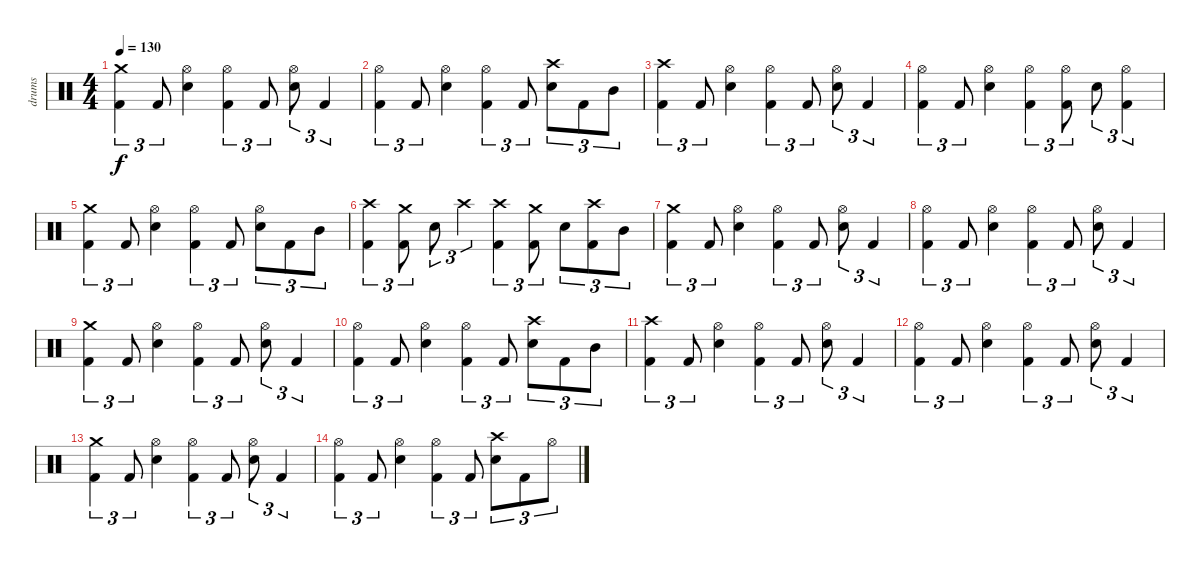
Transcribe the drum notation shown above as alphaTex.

\track ("drums" "drums") {instrument percussion}
\staff {score}
\articulation defaults
\ts (4 4)
\tempo 130
\clef neutral
\ks c
("Crash medium (hit)" "Kick (hit) 2").4{tu (3 2) dy f} "Kick (hit) 2".8{tu (3 2)} ("Hi-Hat (open)" "Electric Snare (hit)").4 ("Hi-Hat (open)" "Kick (hit) 2").4{tu (3 2)} "Kick (hit) 2".8{tu (3 2)} ("Hi-Hat (open)" "Electric Snare (hit)").8{tu (3 2)} "Kick (hit) 2".4{tu (3 2)} |
("Hi-Hat (open)" "Kick (hit) 2").4{tu (3 2)} "Kick (hit) 2".8{tu (3 2)} ("Hi-Hat (open)" "Electric Snare (hit)").4 ("Hi-Hat (open)" "Kick (hit) 2").4{tu (3 2)} "Kick (hit) 2".8{tu (3 2)} ("Crash high (hit)" "Electric Snare (hit)").8{tu (3 2)} "Kick (hit) 2".8{tu (3 2)} "Mid Tom (hit)".8{tu (3 2)} |
("Crash high (hit)" "Kick (hit) 2").4{tu (3 2)} "Kick (hit) 2".8{tu (3 2)} ("Hi-Hat (open)" "Electric Snare (hit)").4 ("Hi-Hat (open)" "Kick (hit) 2").4{tu (3 2)} "Kick (hit) 2".8{tu (3 2)} ("Hi-Hat (open)" "Electric Snare (hit)").8{tu (3 2)} "Kick (hit) 2".4{tu (3 2)} |
("Hi-Hat (open)" "Kick (hit) 2").4{tu (3 2)} "Kick (hit) 2".8{tu (3 2)} ("Hi-Hat (open)" "Electric Snare (hit)").4 ("Hi-Hat (open)" "Kick (hit) 2").4{tu (3 2)} ("Hi-Hat (open)" "Kick (hit) 2").8{tu (3 2)} "Electric Snare (hit)".8{tu (3 2)} ("Hi-Hat (open)" "Kick (hit) 2").4{tu (3 2)} |
("Crash medium (hit)" "Kick (hit) 2").4{tu (3 2)} "Kick (hit) 2".8{tu (3 2)} ("Hi-Hat (open)" "Electric Snare (hit)").4 ("Hi-Hat (open)" "Kick (hit) 2").4{tu (3 2)} "Kick (hit) 2".8{tu (3 2)} ("Hi-Hat (open)" "Electric Snare (hit)").8{tu (3 2)} "Kick (hit) 2".8{tu (3 2)} "Mid Tom (hit)".8{tu (3 2)} |
("Crash high (hit)" "Kick (hit) 2").4{tu (3 2)} ("Crash medium (hit)" "Kick (hit) 2").8{tu (3 2)} "Electric Snare (hit)".8{tu (3 2)} "Crash high (hit)".4{tu (3 2)} ("Crash high (hit)" "Kick (hit) 2").4{tu (3 2)} ("Crash medium (hit)" "Kick (hit) 2").8{tu (3 2)} "Electric Snare (hit)".8{tu (3 2)} ("Crash high (hit)" "Kick (hit) 2").8{tu (3 2)} "Mid Tom (hit)".8{tu (3 2)} |
("Crash medium (hit)" "Kick (hit) 2").4{tu (3 2)} "Kick (hit) 2".8{tu (3 2)} ("Hi-Hat (open)" "Electric Snare (hit)").4 ("Hi-Hat (open)" "Kick (hit) 2").4{tu (3 2)} "Kick (hit) 2".8{tu (3 2)} ("Hi-Hat (open)" "Electric Snare (hit)").8{tu (3 2)} "Kick (hit) 2".4{tu (3 2)} |
("Hi-Hat (open)" "Kick (hit) 2").4{tu (3 2)} "Kick (hit) 2".8{tu (3 2)} ("Hi-Hat (open)" "Electric Snare (hit)").4 ("Hi-Hat (open)" "Kick (hit) 2").4{tu (3 2)} "Kick (hit) 2".8{tu (3 2)} ("Hi-Hat (open)" "Electric Snare (hit)").8{tu (3 2)} "Kick (hit) 2".4{tu (3 2)} |
("Crash medium (hit)" "Kick (hit) 2").4{tu (3 2)} "Kick (hit) 2".8{tu (3 2)} ("Hi-Hat (open)" "Electric Snare (hit)").4 ("Hi-Hat (open)" "Kick (hit) 2").4{tu (3 2)} "Kick (hit) 2".8{tu (3 2)} ("Hi-Hat (open)" "Electric Snare (hit)").8{tu (3 2)} "Kick (hit) 2".4{tu (3 2)} |
("Hi-Hat (open)" "Kick (hit) 2").4{tu (3 2)} "Kick (hit) 2".8{tu (3 2)} ("Hi-Hat (open)" "Electric Snare (hit)").4 ("Hi-Hat (open)" "Kick (hit) 2").4{tu (3 2)} "Kick (hit) 2".8{tu (3 2)} ("Crash high (hit)" "Electric Snare (hit)").8{tu (3 2)} "Kick (hit) 2".8{tu (3 2)} "Mid Tom (hit)".8{tu (3 2)} |
("Crash high (hit)" "Kick (hit) 2").4{tu (3 2)} "Kick (hit) 2".8{tu (3 2)} ("Hi-Hat (open)" "Electric Snare (hit)").4 ("Hi-Hat (open)" "Kick (hit) 2").4{tu (3 2)} "Kick (hit) 2".8{tu (3 2)} ("Hi-Hat (open)" "Electric Snare (hit)").8{tu (3 2)} "Kick (hit) 2".4{tu (3 2)} |
("Hi-Hat (open)" "Kick (hit) 2").4{tu (3 2)} "Kick (hit) 2".8{tu (3 2)} ("Hi-Hat (open)" "Electric Snare (hit)").4 ("Hi-Hat (open)" "Kick (hit) 2").4{tu (3 2)} "Kick (hit) 2".8{tu (3 2)} ("Hi-Hat (open)" "Electric Snare (hit)").8{tu (3 2)} "Kick (hit) 2".4{tu (3 2)} |
("Crash medium (hit)" "Kick (hit) 2").4{tu (3 2)} "Kick (hit) 2".8{tu (3 2)} ("Hi-Hat (open)" "Electric Snare (hit)").4 ("Hi-Hat (open)" "Kick (hit) 2").4{tu (3 2)} "Kick (hit) 2".8{tu (3 2)} ("Hi-Hat (open)" "Electric Snare (hit)").8{tu (3 2)} "Kick (hit) 2".4{tu (3 2)} |
("Hi-Hat (open)" "Kick (hit) 2").4{tu (3 2)} "Kick (hit) 2".8{tu (3 2)} ("Hi-Hat (open)" "Electric Snare (hit)").4 ("Hi-Hat (open)" "Kick (hit) 2").4{tu (3 2)} "Kick (hit) 2".8{tu (3 2)} ("Crash high (hit)" "Electric Snare (hit)").8{tu (3 2)} "Kick (hit) 2".8{tu (3 2)} "Hi-Hat (open)".8{tu (3 2)}
